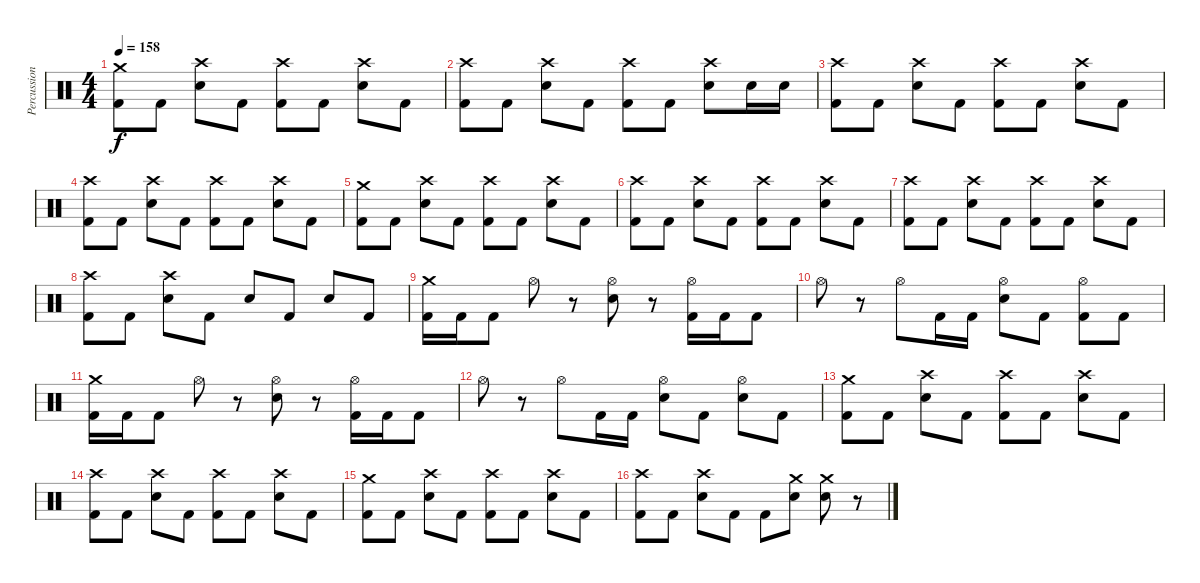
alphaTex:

\track ("Percussion" "Percussion") {instrument percussion}
\staff {score}
\articulation defaults
\ts (4 4)
\tempo 158
\clef neutral
\ks c
("Crash medium (hit)" "Kick (hit) 2").8{dy f} "Kick (hit) 2".8 ("Crash high (hit)" "Snare (hit) 2").8 "Kick (hit) 2".8 ("Crash high (hit)" "Kick (hit) 2").8 "Kick (hit) 2".8 ("Crash high (hit)" "Snare (hit) 2").8 "Kick (hit) 2".8 |
("Crash high (hit)" "Kick (hit) 2").8 "Kick (hit) 2".8 ("Crash high (hit)" "Snare (hit) 2").8 "Kick (hit) 2".8 ("Crash high (hit)" "Kick (hit) 2").8 "Kick (hit) 2".8 ("Crash high (hit)" "Snare (hit) 2").8 "Snare (hit) 2".16 "Snare (hit) 2".16 |
("Crash high (hit)" "Kick (hit) 2").8 "Kick (hit) 2".8 ("Crash high (hit)" "Snare (hit) 2").8 "Kick (hit) 2".8 ("Crash high (hit)" "Kick (hit) 2").8 "Kick (hit) 2".8 ("Crash high (hit)" "Snare (hit) 2").8 "Kick (hit) 2".8 |
("Crash high (hit)" "Kick (hit) 2").8 "Kick (hit) 2".8 ("Crash high (hit)" "Snare (hit) 2").8 "Kick (hit) 2".8 ("Crash high (hit)" "Kick (hit) 2").8 "Kick (hit) 2".8 ("Crash high (hit)" "Snare (hit) 2").8 "Kick (hit) 2".8 |
("Crash medium (hit)" "Kick (hit) 2").8 "Kick (hit) 2".8 ("Crash high (hit)" "Snare (hit) 2").8 "Kick (hit) 2".8 ("Crash high (hit)" "Kick (hit) 2").8 "Kick (hit) 2".8 ("Crash high (hit)" "Snare (hit) 2").8 "Kick (hit) 2".8 |
("Crash high (hit)" "Kick (hit) 2").8 "Kick (hit) 2".8 ("Crash high (hit)" "Snare (hit) 2").8 "Kick (hit) 2".8 ("Crash high (hit)" "Kick (hit) 2").8 "Kick (hit) 2".8 ("Crash high (hit)" "Snare (hit) 2").8 "Kick (hit) 2".8 |
("Crash high (hit)" "Kick (hit) 2").8 "Kick (hit) 2".8 ("Crash high (hit)" "Snare (hit) 2").8 "Kick (hit) 2".8 ("Crash high (hit)" "Kick (hit) 2").8 "Kick (hit) 2".8 ("Crash high (hit)" "Snare (hit) 2").8 "Kick (hit) 2".8 |
("Crash high (hit)" "Kick (hit) 2").8 "Kick (hit) 2".8 ("Crash high (hit)" "Snare (hit) 2").8 "Kick (hit) 2".8 "Snare (hit) 2".8 "Kick (hit) 2".8 "Snare (hit) 2".8 "Kick (hit) 2".8 |
("Crash medium (hit)" "Kick (hit) 2").16 "Kick (hit) 2".16 "Kick (hit) 2".8 "Hi-Hat (open)".8 r.8 ("Hi-Hat (open)" "Snare (hit) 2").8 r.8 ("Hi-Hat (open)" "Kick (hit) 2").16 "Kick (hit) 2".16 "Kick (hit) 2".8 |
"Hi-Hat (open)".8 r.8 "Hi-Hat (open)".8 "Kick (hit) 2".16 "Kick (hit) 2".16 ("Hi-Hat (open)" "Snare (hit) 2").8 "Kick (hit) 2".8 ("Hi-Hat (open)" "Kick (hit) 2").8 "Kick (hit) 2".8 |
("Crash medium (hit)" "Kick (hit) 2").16 "Kick (hit) 2".16 "Kick (hit) 2".8 "Hi-Hat (open)".8 r.8 ("Hi-Hat (open)" "Snare (hit) 2").8 r.8 ("Hi-Hat (open)" "Kick (hit) 2").16 "Kick (hit) 2".16 "Kick (hit) 2".8 |
"Hi-Hat (open)".8 r.8 "Hi-Hat (open)".8 "Kick (hit) 2".16 "Kick (hit) 2".16 ("Hi-Hat (open)" "Snare (hit) 2").8 "Kick (hit) 2".8 ("Hi-Hat (open)" "Snare (hit) 2").8 "Kick (hit) 2".8 |
("Crash medium (hit)" "Kick (hit) 2").8 "Kick (hit) 2".8 ("Crash high (hit)" "Snare (hit) 2").8 "Kick (hit) 2".8 ("Crash high (hit)" "Kick (hit) 2").8 "Kick (hit) 2".8 ("Crash high (hit)" "Snare (hit) 2").8 "Kick (hit) 2".8 |
("Crash high (hit)" "Kick (hit) 2").8 "Kick (hit) 2".8 ("Crash high (hit)" "Snare (hit) 2").8 "Kick (hit) 2".8 ("Crash high (hit)" "Kick (hit) 2").8 "Kick (hit) 2".8 ("Crash high (hit)" "Snare (hit) 2").8 "Kick (hit) 2".8 |
("Crash medium (hit)" "Kick (hit) 2").8 "Kick (hit) 2".8 ("Crash high (hit)" "Snare (hit) 2").8 "Kick (hit) 2".8 ("Crash high (hit)" "Kick (hit) 2").8 "Kick (hit) 2".8 ("Crash high (hit)" "Snare (hit) 2").8 "Kick (hit) 2".8 |
("Crash high (hit)" "Kick (hit) 2").8 "Kick (hit) 2".8 ("Crash high (hit)" "Snare (hit) 2").8 "Kick (hit) 2".8 "Kick (hit) 2".8 ("Crash medium (hit)" "Snare (hit) 2").8 ("Crash medium (hit)" "Snare (hit) 2").8 r.8
